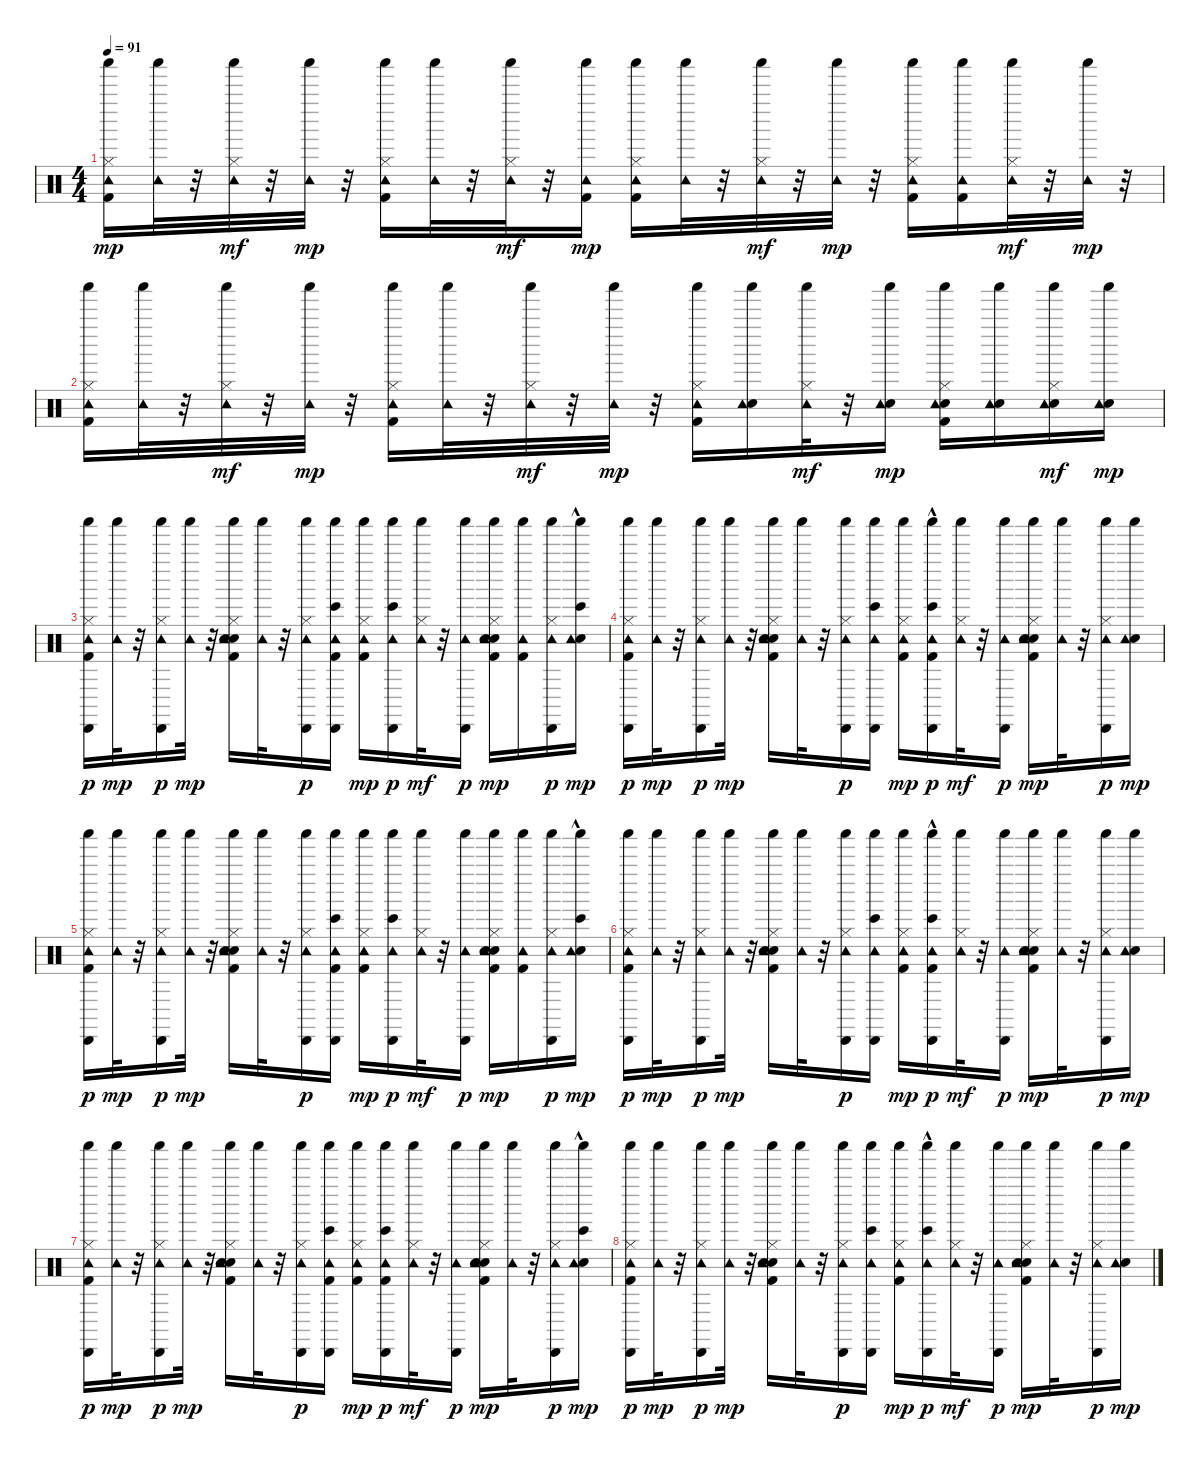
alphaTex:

\track "" {instrument percussion}
\staff {score}
\articulation defaults
\ts (4 4)
\tempo 91
\clef neutral
\ks c
("Kick (hit) 2" "Hi-Hat (closed)" "Tambourine (hit)" "Shaker (hit)").16{dy mp} ("Tambourine (hit)" "Shaker (hit)").32 r.32 ("Hi-Hat (closed)" "Tambourine (hit)" "Shaker (hit)").32{dy mf} r.32 ("Tambourine (hit)" "Shaker (hit)").32{dy mp} r.32 ("Kick (hit) 2" "Hi-Hat (closed)" "Tambourine (hit)" "Shaker (hit)").16 ("Tambourine (hit)" "Shaker (hit)").32 r.32 ("Hi-Hat (closed)" "Tambourine (hit)" "Shaker (hit)").32{dy mf} r.32 ("Kick (hit) 2" "Tambourine (hit)" "Shaker (hit)").16{dy mp} ("Kick (hit) 2" "Hi-Hat (closed)" "Tambourine (hit)" "Shaker (hit)").16 ("Tambourine (hit)" "Shaker (hit)").32 r.32 ("Hi-Hat (closed)" "Tambourine (hit)" "Shaker (hit)").32{dy mf} r.32 ("Tambourine (hit)" "Shaker (hit)").32{dy mp} r.32 ("Kick (hit) 2" "Hi-Hat (closed)" "Tambourine (hit)" "Shaker (hit)").16 ("Kick (hit) 2" "Tambourine (hit)" "Shaker (hit)").16 ("Hi-Hat (closed)" "Tambourine (hit)" "Shaker (hit)").32{dy mf} r.32 ("Tambourine (hit)" "Shaker (hit)").32{dy mp} r.32 |
("Kick (hit) 2" "Hi-Hat (closed)" "Tambourine (hit)" "Shaker (hit)").16 ("Tambourine (hit)" "Shaker (hit)").32 r.32 ("Hi-Hat (closed)" "Tambourine (hit)" "Shaker (hit)").32{dy mf} r.32 ("Tambourine (hit)" "Shaker (hit)").32{dy mp} r.32 ("Kick (hit) 2" "Hi-Hat (closed)" "Tambourine (hit)" "Shaker (hit)").16 ("Tambourine (hit)" "Shaker (hit)").32 r.32 ("Hi-Hat (closed)" "Tambourine (hit)" "Shaker (hit)").32{dy mf} r.32 ("Tambourine (hit)" "Shaker (hit)").32{dy mp} r.32 ("Kick (hit) 2" "Hi-Hat (closed)" "Tambourine (hit)" "Shaker (hit)").16 ("Electric Snare (hit)" "Tambourine (hit)" "Shaker (hit)").16 ("Hi-Hat (closed)" "Tambourine (hit)" "Shaker (hit)").32{dy mf} r.32 ("Electric Snare (hit)" "Tambourine (hit)" "Shaker (hit)").16{dy mp} ("Kick (hit) 2" "Electric Snare (hit)" "Hi-Hat (closed)" "Tambourine (hit)" "Shaker (hit)").16 ("Electric Snare (hit)" "Tambourine (hit)" "Shaker (hit)").16 ("Electric Snare (hit)" "Hi-Hat (closed)" "Tambourine (hit)" "Shaker (hit)").16{dy mf} ("Electric Snare (hit)" "Tambourine (hit)" "Shaker (hit)").16{dy mp} |
("Kick (hit) 2" "Hi-Hat (closed)" "Tambourine (hit)" "Shaker (hit)" "Cabasa (hit)").16{dy p} ("Tambourine (hit)" "Shaker (hit)").32{dy mp} r.32 ("Hi-Hat (closed)" "Tambourine (hit)" "Shaker (hit)" "Cabasa (hit)").16{dy p} ("Tambourine (hit)" "Shaker (hit)").32{dy mp} r.32 ("Kick (hit) 2" "Electric Snare (hit)" "Hi-Hat (closed)" "Hand Clap (hit)" "Tambourine (hit)" "Shaker (hit)").16 ("Tambourine (hit)" "Shaker (hit)").32 r.32 ("Hi-Hat (closed)" "Tambourine (hit)" "Shaker (hit)" "Cabasa (hit)").16{dy p} ("Kick (hit) 2" "Tambourine (hit)" "Shaker (hit)" "Cabasa (hit)" "Bongo High (hit)").16 ("Kick (hit) 2" "Hi-Hat (closed)" "Tambourine (hit)" "Shaker (hit)").16{dy mp} ("Tambourine (hit)" "Shaker (hit)" "Cabasa (hit)" "Bongo High (hit)").16{dy p} ("Hi-Hat (closed)" "Tambourine (hit)" "Shaker (hit)").32{dy mf} r.32 ("Tambourine (hit)" "Shaker (hit)" "Cabasa (hit)").16{dy p} ("Kick (hit) 2" "Electric Snare (hit)" "Hi-Hat (closed)" "Hand Clap (hit)" "Tambourine (hit)" "Shaker (hit)").16{dy mp} ("Kick (hit) 2" "Tambourine (hit)" "Shaker (hit)").16 ("Hi-Hat (closed)" "Tambourine (hit)" "Shaker (hit)" "Cabasa (hit)").16{dy p} ("Electric Snare (hit)" "Tambourine (hit)" "Shaker (hit)" "Bongo High (hit)"{hac}).16{dy mp} |
("Kick (hit) 2" "Hi-Hat (closed)" "Tambourine (hit)" "Shaker (hit)" "Cabasa (hit)").16{dy p} ("Tambourine (hit)" "Shaker (hit)").32{dy mp} r.32 ("Hi-Hat (closed)" "Tambourine (hit)" "Shaker (hit)" "Cabasa (hit)").16{dy p} ("Tambourine (hit)" "Shaker (hit)").32{dy mp} r.32 ("Kick (hit) 2" "Electric Snare (hit)" "Hi-Hat (closed)" "Hand Clap (hit)" "Tambourine (hit)" "Shaker (hit)").16 ("Tambourine (hit)" "Shaker (hit)").32 r.32 ("Hi-Hat (closed)" "Tambourine (hit)" "Shaker (hit)" "Cabasa (hit)").16{dy p} ("Tambourine (hit)" "Shaker (hit)" "Cabasa (hit)" "Bongo High (hit)").16 ("Kick (hit) 2" "Hi-Hat (closed)" "Tambourine (hit)" "Shaker (hit)").16{dy mp} ("Kick (hit) 2" "Tambourine (hit)" "Shaker (hit)" "Cabasa (hit)" "Bongo High (hit)"{hac}).16{dy p} ("Hi-Hat (closed)" "Tambourine (hit)" "Shaker (hit)").32{dy mf} r.32 ("Tambourine (hit)" "Shaker (hit)" "Cabasa (hit)").16{dy p} ("Kick (hit) 2" "Electric Snare (hit)" "Hi-Hat (closed)" "Hand Clap (hit)" "Tambourine (hit)" "Shaker (hit)").16{dy mp} ("Tambourine (hit)" "Shaker (hit)").32 r.32 ("Hi-Hat (closed)" "Tambourine (hit)" "Shaker (hit)" "Cabasa (hit)").16{dy p} ("Electric Snare (hit)" "Tambourine (hit)" "Shaker (hit)").16{dy mp} |
("Kick (hit) 2" "Hi-Hat (closed)" "Tambourine (hit)" "Shaker (hit)" "Cabasa (hit)").16{dy p} ("Tambourine (hit)" "Shaker (hit)").32{dy mp} r.32 ("Hi-Hat (closed)" "Tambourine (hit)" "Shaker (hit)" "Cabasa (hit)").16{dy p} ("Tambourine (hit)" "Shaker (hit)").32{dy mp} r.32 ("Kick (hit) 2" "Electric Snare (hit)" "Hi-Hat (closed)" "Hand Clap (hit)" "Tambourine (hit)" "Shaker (hit)").16 ("Tambourine (hit)" "Shaker (hit)").32 r.32 ("Hi-Hat (closed)" "Tambourine (hit)" "Shaker (hit)" "Cabasa (hit)").16{dy p} ("Kick (hit) 2" "Tambourine (hit)" "Shaker (hit)" "Cabasa (hit)" "Bongo High (hit)").16 ("Kick (hit) 2" "Hi-Hat (closed)" "Tambourine (hit)" "Shaker (hit)").16{dy mp} ("Tambourine (hit)" "Shaker (hit)" "Cabasa (hit)" "Bongo High (hit)").16{dy p} ("Hi-Hat (closed)" "Tambourine (hit)" "Shaker (hit)").32{dy mf} r.32 ("Tambourine (hit)" "Shaker (hit)" "Cabasa (hit)").16{dy p} ("Kick (hit) 2" "Electric Snare (hit)" "Hi-Hat (closed)" "Hand Clap (hit)" "Tambourine (hit)" "Shaker (hit)").16{dy mp} ("Kick (hit) 2" "Tambourine (hit)" "Shaker (hit)").16 ("Hi-Hat (closed)" "Tambourine (hit)" "Shaker (hit)" "Cabasa (hit)").16{dy p} ("Electric Snare (hit)" "Tambourine (hit)" "Shaker (hit)" "Bongo High (hit)"{hac}).16{dy mp} |
("Kick (hit) 2" "Hi-Hat (closed)" "Tambourine (hit)" "Shaker (hit)" "Cabasa (hit)").16{dy p} ("Tambourine (hit)" "Shaker (hit)").32{dy mp} r.32 ("Hi-Hat (closed)" "Tambourine (hit)" "Shaker (hit)" "Cabasa (hit)").16{dy p} ("Tambourine (hit)" "Shaker (hit)").32{dy mp} r.32 ("Kick (hit) 2" "Electric Snare (hit)" "Hi-Hat (closed)" "Hand Clap (hit)" "Tambourine (hit)" "Shaker (hit)").16 ("Tambourine (hit)" "Shaker (hit)").32 r.32 ("Hi-Hat (closed)" "Tambourine (hit)" "Shaker (hit)" "Cabasa (hit)").16{dy p} ("Tambourine (hit)" "Shaker (hit)" "Cabasa (hit)" "Bongo High (hit)").16 ("Kick (hit) 2" "Hi-Hat (closed)" "Tambourine (hit)" "Shaker (hit)").16{dy mp} ("Kick (hit) 2" "Tambourine (hit)" "Shaker (hit)" "Cabasa (hit)" "Bongo High (hit)"{hac}).16{dy p} ("Hi-Hat (closed)" "Tambourine (hit)" "Shaker (hit)").32{dy mf} r.32 ("Tambourine (hit)" "Shaker (hit)" "Cabasa (hit)").16{dy p} ("Kick (hit) 2" "Electric Snare (hit)" "Hi-Hat (closed)" "Hand Clap (hit)" "Tambourine (hit)" "Shaker (hit)").16{dy mp} ("Tambourine (hit)" "Shaker (hit)").32 r.32 ("Hi-Hat (closed)" "Tambourine (hit)" "Shaker (hit)" "Cabasa (hit)").16{dy p} ("Electric Snare (hit)" "Tambourine (hit)" "Shaker (hit)").16{dy mp} |
("Kick (hit) 2" "Hi-Hat (closed)" "Tambourine (hit)" "Shaker (hit)" "Cabasa (hit)").16{dy p} ("Tambourine (hit)" "Shaker (hit)").32{dy mp} r.32 ("Hi-Hat (closed)" "Tambourine (hit)" "Shaker (hit)" "Cabasa (hit)").16{dy p} ("Tambourine (hit)" "Shaker (hit)").32{dy mp} r.32 ("Kick (hit) 2" "Electric Snare (hit)" "Hi-Hat (closed)" "Hand Clap (hit)" "Tambourine (hit)" "Shaker (hit)").16 ("Tambourine (hit)" "Shaker (hit)").32 r.32 ("Hi-Hat (closed)" "Tambourine (hit)" "Shaker (hit)" "Cabasa (hit)").16{dy p} ("Kick (hit) 2" "Tambourine (hit)" "Shaker (hit)" "Cabasa (hit)" "Bongo High (hit)").16 ("Kick (hit) 2" "Hi-Hat (closed)" "Tambourine (hit)" "Shaker (hit)").16{dy mp} ("Kick (hit) 2" "Tambourine (hit)" "Shaker (hit)" "Cabasa (hit)" "Bongo High (hit)").16{dy p} ("Hi-Hat (closed)" "Tambourine (hit)" "Shaker (hit)").32{dy mf} r.32 ("Tambourine (hit)" "Shaker (hit)" "Cabasa (hit)").16{dy p} ("Kick (hit) 2" "Electric Snare (hit)" "Hi-Hat (closed)" "Hand Clap (hit)" "Tambourine (hit)" "Shaker (hit)").16{dy mp} ("Tambourine (hit)" "Shaker (hit)").32 r.32 ("Hi-Hat (closed)" "Tambourine (hit)" "Shaker (hit)" "Cabasa (hit)").16{dy p} ("Electric Snare (hit)" "Tambourine (hit)" "Shaker (hit)" "Bongo High (hit)"{hac}).16{dy mp} |
("Kick (hit) 2" "Hi-Hat (closed)" "Tambourine (hit)" "Shaker (hit)" "Cabasa (hit)").16{dy p} ("Tambourine (hit)" "Shaker (hit)").32{dy mp} r.32 ("Hi-Hat (closed)" "Tambourine (hit)" "Shaker (hit)" "Cabasa (hit)").16{dy p} ("Tambourine (hit)" "Shaker (hit)").32{dy mp} r.32 ("Kick (hit) 2" "Electric Snare (hit)" "Hi-Hat (closed)" "Hand Clap (hit)" "Tambourine (hit)" "Shaker (hit)").16 ("Tambourine (hit)" "Shaker (hit)").32 r.32 ("Hi-Hat (closed)" "Tambourine (hit)" "Shaker (hit)" "Cabasa (hit)").16{dy p} ("Tambourine (hit)" "Shaker (hit)" "Cabasa (hit)" "Bongo High (hit)").16 ("Kick (hit) 2" "Hi-Hat (closed)" "Tambourine (hit)" "Shaker (hit)").16{dy mp} ("Tambourine (hit)" "Shaker (hit)" "Cabasa (hit)" "Bongo High (hit)"{hac}).16{dy p} ("Hi-Hat (closed)" "Tambourine (hit)" "Shaker (hit)").32{dy mf} r.32 ("Tambourine (hit)" "Shaker (hit)" "Cabasa (hit)").16{dy p} ("Kick (hit) 2" "Electric Snare (hit)" "Hi-Hat (closed)" "Hand Clap (hit)" "Tambourine (hit)" "Shaker (hit)").16{dy mp} ("Tambourine (hit)" "Shaker (hit)").32 r.32 ("Hi-Hat (closed)" "Tambourine (hit)" "Shaker (hit)" "Cabasa (hit)").16{dy p} ("Electric Snare (hit)" "Tambourine (hit)" "Shaker (hit)").16{dy mp}
